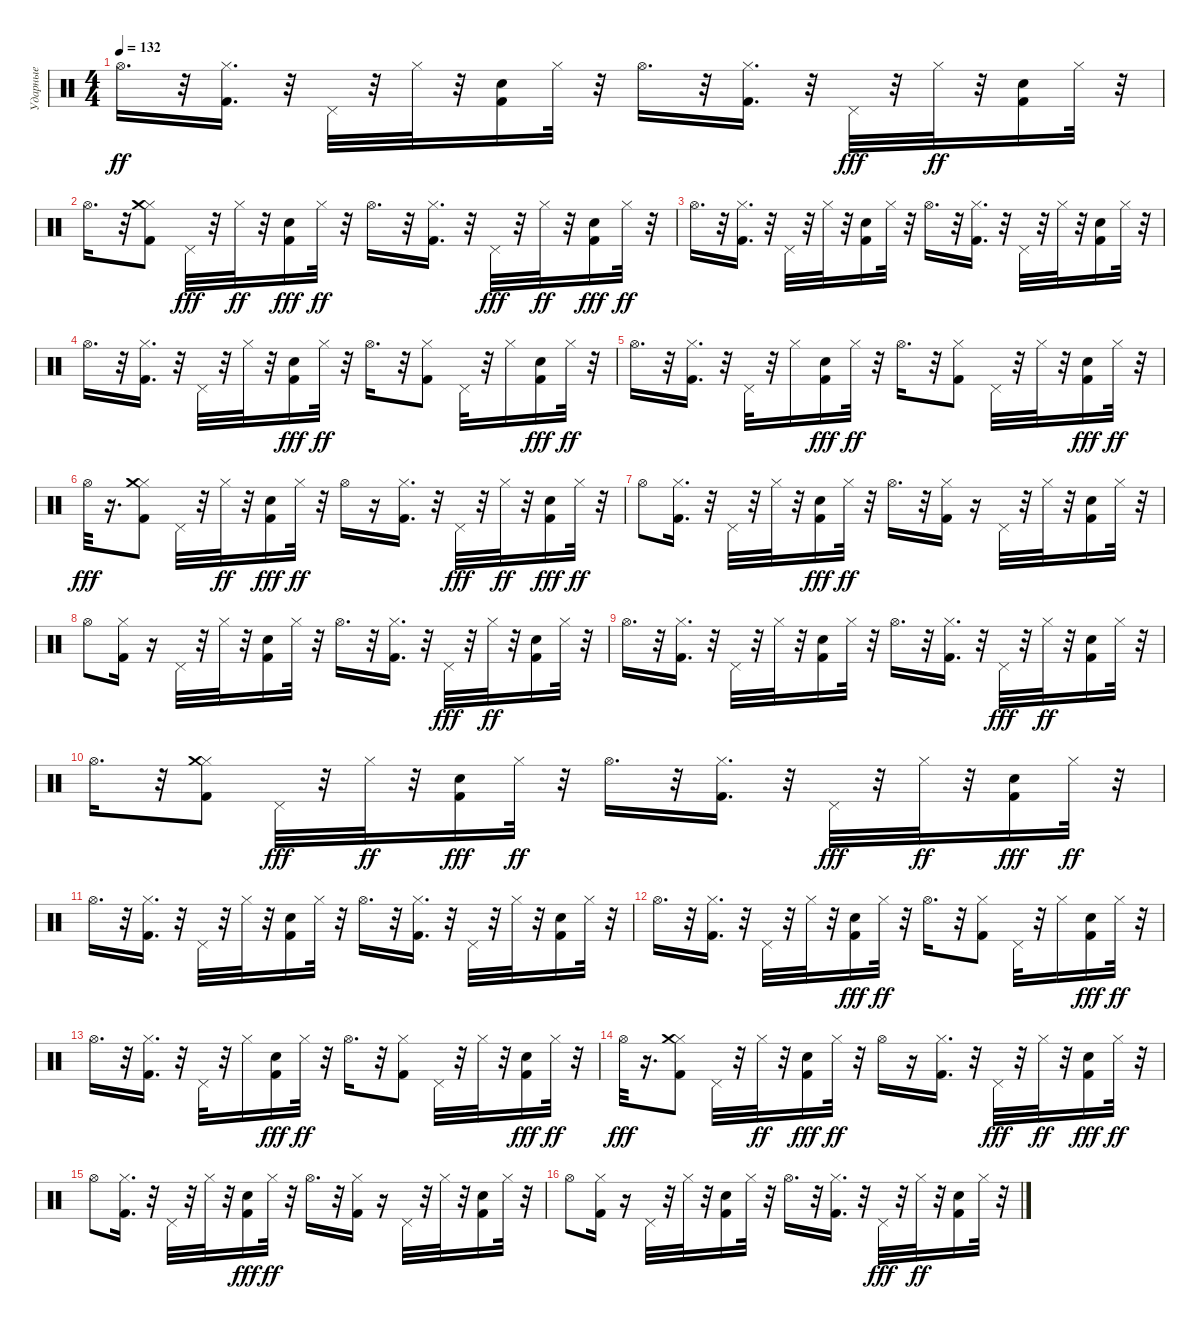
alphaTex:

\track ("Ударные" "Ударные") {instrument percussion}
\staff {score}
\articulation defaults
\ts (4 4)
\tempo 132
\clef neutral
\ks c "Hi-Hat (open)".16{d dy ff}
r.32 ("Kick (hit) 2" "Hi-Hat (closed)").16{d} r.32 "Pedal Hi-Hat (hit)".32 r.32 "Hi-Hat (closed)".32 r.32 ("Kick (hit) 2" "Snare (hit) 2").16 "Hi-Hat (closed)".32 r.32 "Hi-Hat (open)".16{d} r.32 ("Kick (hit) 2" "Hi-Hat (closed)").16{d} r.32 "Pedal Hi-Hat (hit)".32{dy fff} r.32 "Hi-Hat (closed)".32{dy ff} r.32 ("Kick (hit) 2" "Snare (hit) 2").16 "Hi-Hat (closed)".32 r.32 |
"Hi-Hat (open)".16{d} r.32 ("Kick (hit) 2" "Hi-Hat (closed)" "Crash medium (hit)").8 "Pedal Hi-Hat (hit)".32{dy fff} r.32 "Hi-Hat (closed)".32{dy ff} r.32 ("Kick (hit) 2" "Snare (hit) 2").16{dy fff} "Hi-Hat (closed)".32{dy ff} r.32 "Hi-Hat (open)".16{d} r.32 ("Kick (hit) 2" "Hi-Hat (closed)").16{d} r.32 "Pedal Hi-Hat (hit)".32{dy fff} r.32 "Hi-Hat (closed)".32{dy ff} r.32 ("Kick (hit) 2" "Snare (hit) 2").16{dy fff} "Hi-Hat (closed)".32{dy ff} r.32 |
"Hi-Hat (open)".16{d} r.32 ("Kick (hit) 2" "Hi-Hat (closed)").16{d} r.32 "Pedal Hi-Hat (hit)".32 r.32 "Hi-Hat (closed)".32 r.32 ("Kick (hit) 2" "Snare (hit) 2").16 "Hi-Hat (closed)".32 r.32 "Hi-Hat (open)".16{d} r.32 ("Kick (hit) 2" "Hi-Hat (closed)").16{d} r.32 "Pedal Hi-Hat (hit)".32 r.32 "Hi-Hat (closed)".32 r.32 ("Kick (hit) 2" "Snare (hit) 2").16 "Hi-Hat (closed)".32 r.32 |
"Hi-Hat (open)".16{d} r.32 ("Kick (hit) 2" "Hi-Hat (closed)").16{d} r.32 "Pedal Hi-Hat (hit)".32 r.32 "Hi-Hat (closed)".32 r.32 ("Kick (hit) 2" "Snare (hit) 2").16{dy fff} "Hi-Hat (closed)".32{dy ff} r.32 "Hi-Hat (open)".16{d} r.32 ("Kick (hit) 2" "Hi-Hat (closed)").8 "Pedal Hi-Hat (hit)".32 r.32 "Hi-Hat (closed)".16 ("Kick (hit) 2" "Snare (hit) 2").16{dy fff} "Hi-Hat (closed)".32{dy ff} r.32 |
"Hi-Hat (open)".16{d} r.32 ("Kick (hit) 2" "Hi-Hat (closed)").16{d} r.32 "Pedal Hi-Hat (hit)".32 r.32 "Hi-Hat (closed)".16 ("Kick (hit) 2" "Snare (hit) 2").16{dy fff} "Hi-Hat (closed)".32{dy ff} r.32 "Hi-Hat (open)".16{d} r.32 ("Kick (hit) 2" "Hi-Hat (closed)").8 "Pedal Hi-Hat (hit)".32 r.32 "Hi-Hat (closed)".32 r.32 ("Kick (hit) 2" "Snare (hit) 2").16{dy fff} "Hi-Hat (closed)".32{dy ff} r.32 |
"Hi-Hat (open)".32{dy fff} r.16{d} ("Kick (hit) 2" "Hi-Hat (closed)" "Crash medium (hit)").8 "Pedal Hi-Hat (hit)".32 r.32 "Hi-Hat (closed)".32{dy ff} r.32 ("Kick (hit) 2" "Snare (hit) 2").16{dy fff} "Hi-Hat (closed)".32{dy ff} r.32 "Hi-Hat (open)".16 r.16 ("Kick (hit) 2" "Hi-Hat (closed)").16{d} r.32 "Pedal Hi-Hat (hit)".32{dy fff} r.32 "Hi-Hat (closed)".32{dy ff} r.32 ("Kick (hit) 2" "Snare (hit) 2").16{dy fff} "Hi-Hat (closed)".32{dy ff} r.32 |
"Hi-Hat (open)".8 ("Kick (hit) 2" "Hi-Hat (closed)").16{d} r.32 "Pedal Hi-Hat (hit)".32 r.32 "Hi-Hat (closed)".32 r.32 ("Kick (hit) 2" "Snare (hit) 2").16{dy fff} "Hi-Hat (closed)".32{dy ff} r.32 "Hi-Hat (open)".16{d} r.32 ("Kick (hit) 2" "Hi-Hat (closed)").16 r.16 "Pedal Hi-Hat (hit)".32 r.32 "Hi-Hat (closed)".32 r.32 ("Kick (hit) 2" "Snare (hit) 2").16 "Hi-Hat (closed)".32 r.32 |
"Hi-Hat (open)".8 ("Kick (hit) 2" "Hi-Hat (closed)").16 r.16 "Pedal Hi-Hat (hit)".32 r.32 "Hi-Hat (closed)".32 r.32 ("Kick (hit) 2" "Snare (hit) 2").16 "Hi-Hat (closed)".32 r.32 "Hi-Hat (open)".16{d} r.32 ("Kick (hit) 2" "Hi-Hat (closed)").16{d} r.32 "Pedal Hi-Hat (hit)".32{dy fff} r.32 "Hi-Hat (closed)".32{dy ff} r.32 ("Kick (hit) 2" "Snare (hit) 2").16 "Hi-Hat (closed)".32 r.32 |
"Hi-Hat (open)".16{d} r.32 ("Kick (hit) 2" "Hi-Hat (closed)").16{d} r.32 "Pedal Hi-Hat (hit)".32 r.32 "Hi-Hat (closed)".32 r.32 ("Kick (hit) 2" "Snare (hit) 2").16 "Hi-Hat (closed)".32 r.32 "Hi-Hat (open)".16{d} r.32 ("Kick (hit) 2" "Hi-Hat (closed)").16{d} r.32 "Pedal Hi-Hat (hit)".32{dy fff} r.32 "Hi-Hat (closed)".32{dy ff} r.32 ("Kick (hit) 2" "Snare (hit) 2").16 "Hi-Hat (closed)".32 r.32 |
"Hi-Hat (open)".16{d} r.32 ("Kick (hit) 2" "Hi-Hat (closed)" "Crash medium (hit)").8 "Pedal Hi-Hat (hit)".32{dy fff} r.32 "Hi-Hat (closed)".32{dy ff} r.32 ("Kick (hit) 2" "Snare (hit) 2").16{dy fff} "Hi-Hat (closed)".32{dy ff} r.32 "Hi-Hat (open)".16{d} r.32 ("Kick (hit) 2" "Hi-Hat (closed)").16{d} r.32 "Pedal Hi-Hat (hit)".32{dy fff} r.32 "Hi-Hat (closed)".32{dy ff} r.32 ("Kick (hit) 2" "Snare (hit) 2").16{dy fff} "Hi-Hat (closed)".32{dy ff} r.32 |
"Hi-Hat (open)".16{d} r.32 ("Kick (hit) 2" "Hi-Hat (closed)").16{d} r.32 "Pedal Hi-Hat (hit)".32 r.32 "Hi-Hat (closed)".32 r.32 ("Kick (hit) 2" "Snare (hit) 2").16 "Hi-Hat (closed)".32 r.32 "Hi-Hat (open)".16{d} r.32 ("Kick (hit) 2" "Hi-Hat (closed)").16{d} r.32 "Pedal Hi-Hat (hit)".32 r.32 "Hi-Hat (closed)".32 r.32 ("Kick (hit) 2" "Snare (hit) 2").16 "Hi-Hat (closed)".32 r.32 |
"Hi-Hat (open)".16{d} r.32 ("Kick (hit) 2" "Hi-Hat (closed)").16{d} r.32 "Pedal Hi-Hat (hit)".32 r.32 "Hi-Hat (closed)".32 r.32 ("Kick (hit) 2" "Snare (hit) 2").16{dy fff} "Hi-Hat (closed)".32{dy ff} r.32 "Hi-Hat (open)".16{d} r.32 ("Kick (hit) 2" "Hi-Hat (closed)").8 "Pedal Hi-Hat (hit)".32 r.32 "Hi-Hat (closed)".16 ("Kick (hit) 2" "Snare (hit) 2").16{dy fff} "Hi-Hat (closed)".32{dy ff} r.32 |
"Hi-Hat (open)".16{d} r.32 ("Kick (hit) 2" "Hi-Hat (closed)").16{d} r.32 "Pedal Hi-Hat (hit)".32 r.32 "Hi-Hat (closed)".16 ("Kick (hit) 2" "Snare (hit) 2").16{dy fff} "Hi-Hat (closed)".32{dy ff} r.32 "Hi-Hat (open)".16{d} r.32 ("Kick (hit) 2" "Hi-Hat (closed)").8 "Pedal Hi-Hat (hit)".32 r.32 "Hi-Hat (closed)".32 r.32 ("Kick (hit) 2" "Snare (hit) 2").16{dy fff} "Hi-Hat (closed)".32{dy ff} r.32 |
"Hi-Hat (open)".32{dy fff} r.16{d} ("Kick (hit) 2" "Hi-Hat (closed)" "Crash medium (hit)").8 "Pedal Hi-Hat (hit)".32 r.32 "Hi-Hat (closed)".32{dy ff} r.32 ("Kick (hit) 2" "Snare (hit) 2").16{dy fff} "Hi-Hat (closed)".32{dy ff} r.32 "Hi-Hat (open)".16 r.16 ("Kick (hit) 2" "Hi-Hat (closed)").16{d} r.32 "Pedal Hi-Hat (hit)".32{dy fff} r.32 "Hi-Hat (closed)".32{dy ff} r.32 ("Kick (hit) 2" "Snare (hit) 2").16{dy fff} "Hi-Hat (closed)".32{dy ff} r.32 |
"Hi-Hat (open)".8 ("Kick (hit) 2" "Hi-Hat (closed)").16{d} r.32 "Pedal Hi-Hat (hit)".32 r.32 "Hi-Hat (closed)".32 r.32 ("Kick (hit) 2" "Snare (hit) 2").16{dy fff} "Hi-Hat (closed)".32{dy ff} r.32 "Hi-Hat (open)".16{d} r.32 ("Kick (hit) 2" "Hi-Hat (closed)").16 r.16 "Pedal Hi-Hat (hit)".32 r.32 "Hi-Hat (closed)".32 r.32 ("Kick (hit) 2" "Snare (hit) 2").16 "Hi-Hat (closed)".32 r.32 |
"Hi-Hat (open)".8 ("Kick (hit) 2" "Hi-Hat (closed)").16 r.16 "Pedal Hi-Hat (hit)".32 r.32 "Hi-Hat (closed)".32 r.32 ("Kick (hit) 2" "Snare (hit) 2").16 "Hi-Hat (closed)".32 r.32 "Hi-Hat (open)".16{d} r.32 ("Kick (hit) 2" "Hi-Hat (closed)").16{d} r.32 "Pedal Hi-Hat (hit)".32{dy fff} r.32 "Hi-Hat (closed)".32{dy ff} r.32 ("Kick (hit) 2" "Snare (hit) 2").16 "Hi-Hat (closed)".32 r.32
